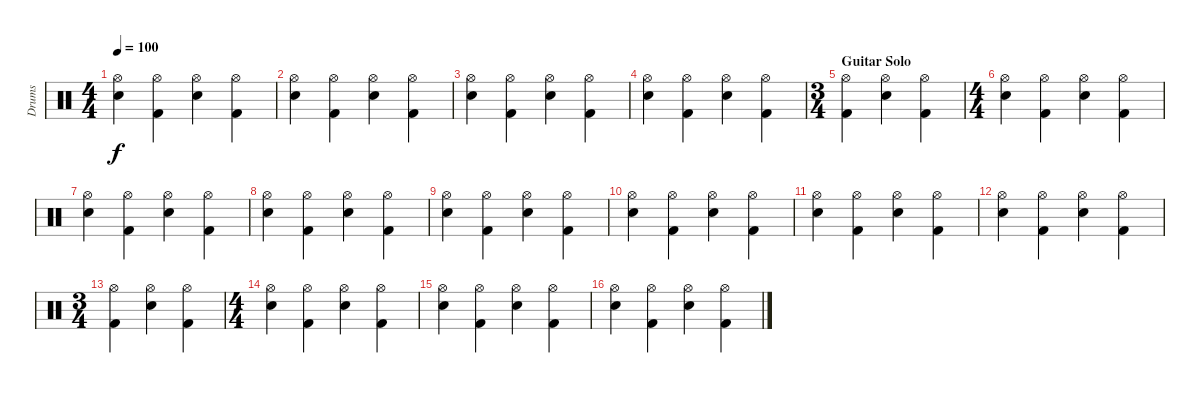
\track ("Drums" "Drums") {instrument percussion}
\staff {score}
\articulation defaults
\ts (4 4)
\tempo 100
\clef neutral
\ks c
("Hi-Hat (open)" "Electric Snare (hit)").4{dy f} ("Hi-Hat (open)" "Kick (hit) 2").4 ("Hi-Hat (open)" "Electric Snare (hit)").4 ("Hi-Hat (open)" "Kick (hit) 2").4 |
("Hi-Hat (open)" "Electric Snare (hit)").4 ("Hi-Hat (open)" "Kick (hit) 2").4 ("Hi-Hat (open)" "Electric Snare (hit)").4 ("Hi-Hat (open)" "Kick (hit) 2").4 |
("Hi-Hat (open)" "Electric Snare (hit)").4 ("Hi-Hat (open)" "Kick (hit) 2").4 ("Hi-Hat (open)" "Electric Snare (hit)").4 ("Hi-Hat (open)" "Kick (hit) 2").4 |
("Hi-Hat (open)" "Electric Snare (hit)").4 ("Hi-Hat (open)" "Kick (hit) 2").4 ("Hi-Hat (open)" "Electric Snare (hit)").4 ("Hi-Hat (open)" "Kick (hit) 2").4 |
\ts (3 4)
\section ("" "Guitar Solo")
("Hi-Hat (open)" "Kick (hit) 2").4 ("Hi-Hat (open)" "Electric Snare (hit)").4 ("Hi-Hat (open)" "Kick (hit) 2").4 |
\ts (4 4)
("Hi-Hat (open)" "Electric Snare (hit)").4 ("Hi-Hat (open)" "Kick (hit) 2").4 ("Hi-Hat (open)" "Electric Snare (hit)").4 ("Hi-Hat (open)" "Kick (hit) 2").4 |
("Hi-Hat (open)" "Electric Snare (hit)").4 ("Hi-Hat (open)" "Kick (hit) 2").4 ("Hi-Hat (open)" "Electric Snare (hit)").4 ("Hi-Hat (open)" "Kick (hit) 2").4 |
("Hi-Hat (open)" "Electric Snare (hit)").4 ("Hi-Hat (open)" "Kick (hit) 2").4 ("Hi-Hat (open)" "Electric Snare (hit)").4 ("Hi-Hat (open)" "Kick (hit) 2").4 |
("Hi-Hat (open)" "Electric Snare (hit)").4 ("Hi-Hat (open)" "Kick (hit) 2").4 ("Hi-Hat (open)" "Electric Snare (hit)").4 ("Hi-Hat (open)" "Kick (hit) 2").4 |
("Hi-Hat (open)" "Electric Snare (hit)").4 ("Hi-Hat (open)" "Kick (hit) 2").4 ("Hi-Hat (open)" "Electric Snare (hit)").4 ("Hi-Hat (open)" "Kick (hit) 2").4 |
("Hi-Hat (open)" "Electric Snare (hit)").4 ("Hi-Hat (open)" "Kick (hit) 2").4 ("Hi-Hat (open)" "Electric Snare (hit)").4 ("Hi-Hat (open)" "Kick (hit) 2").4 |
("Hi-Hat (open)" "Electric Snare (hit)").4 ("Hi-Hat (open)" "Kick (hit) 2").4 ("Hi-Hat (open)" "Electric Snare (hit)").4 ("Hi-Hat (open)" "Kick (hit) 2").4 |
\ts (3 4)
("Hi-Hat (open)" "Kick (hit) 2").4 ("Hi-Hat (open)" "Electric Snare (hit)").4 ("Hi-Hat (open)" "Kick (hit) 2").4 |
\ts (4 4)
("Hi-Hat (open)" "Electric Snare (hit)").4 ("Hi-Hat (open)" "Kick (hit) 2").4 ("Hi-Hat (open)" "Electric Snare (hit)").4 ("Hi-Hat (open)" "Kick (hit) 2").4 |
("Hi-Hat (open)" "Electric Snare (hit)").4 ("Hi-Hat (open)" "Kick (hit) 2").4 ("Hi-Hat (open)" "Electric Snare (hit)").4 ("Hi-Hat (open)" "Kick (hit) 2").4 |
("Hi-Hat (open)" "Electric Snare (hit)").4 ("Hi-Hat (open)" "Kick (hit) 2").4 ("Hi-Hat (open)" "Electric Snare (hit)").4 ("Hi-Hat (open)" "Kick (hit) 2").4
